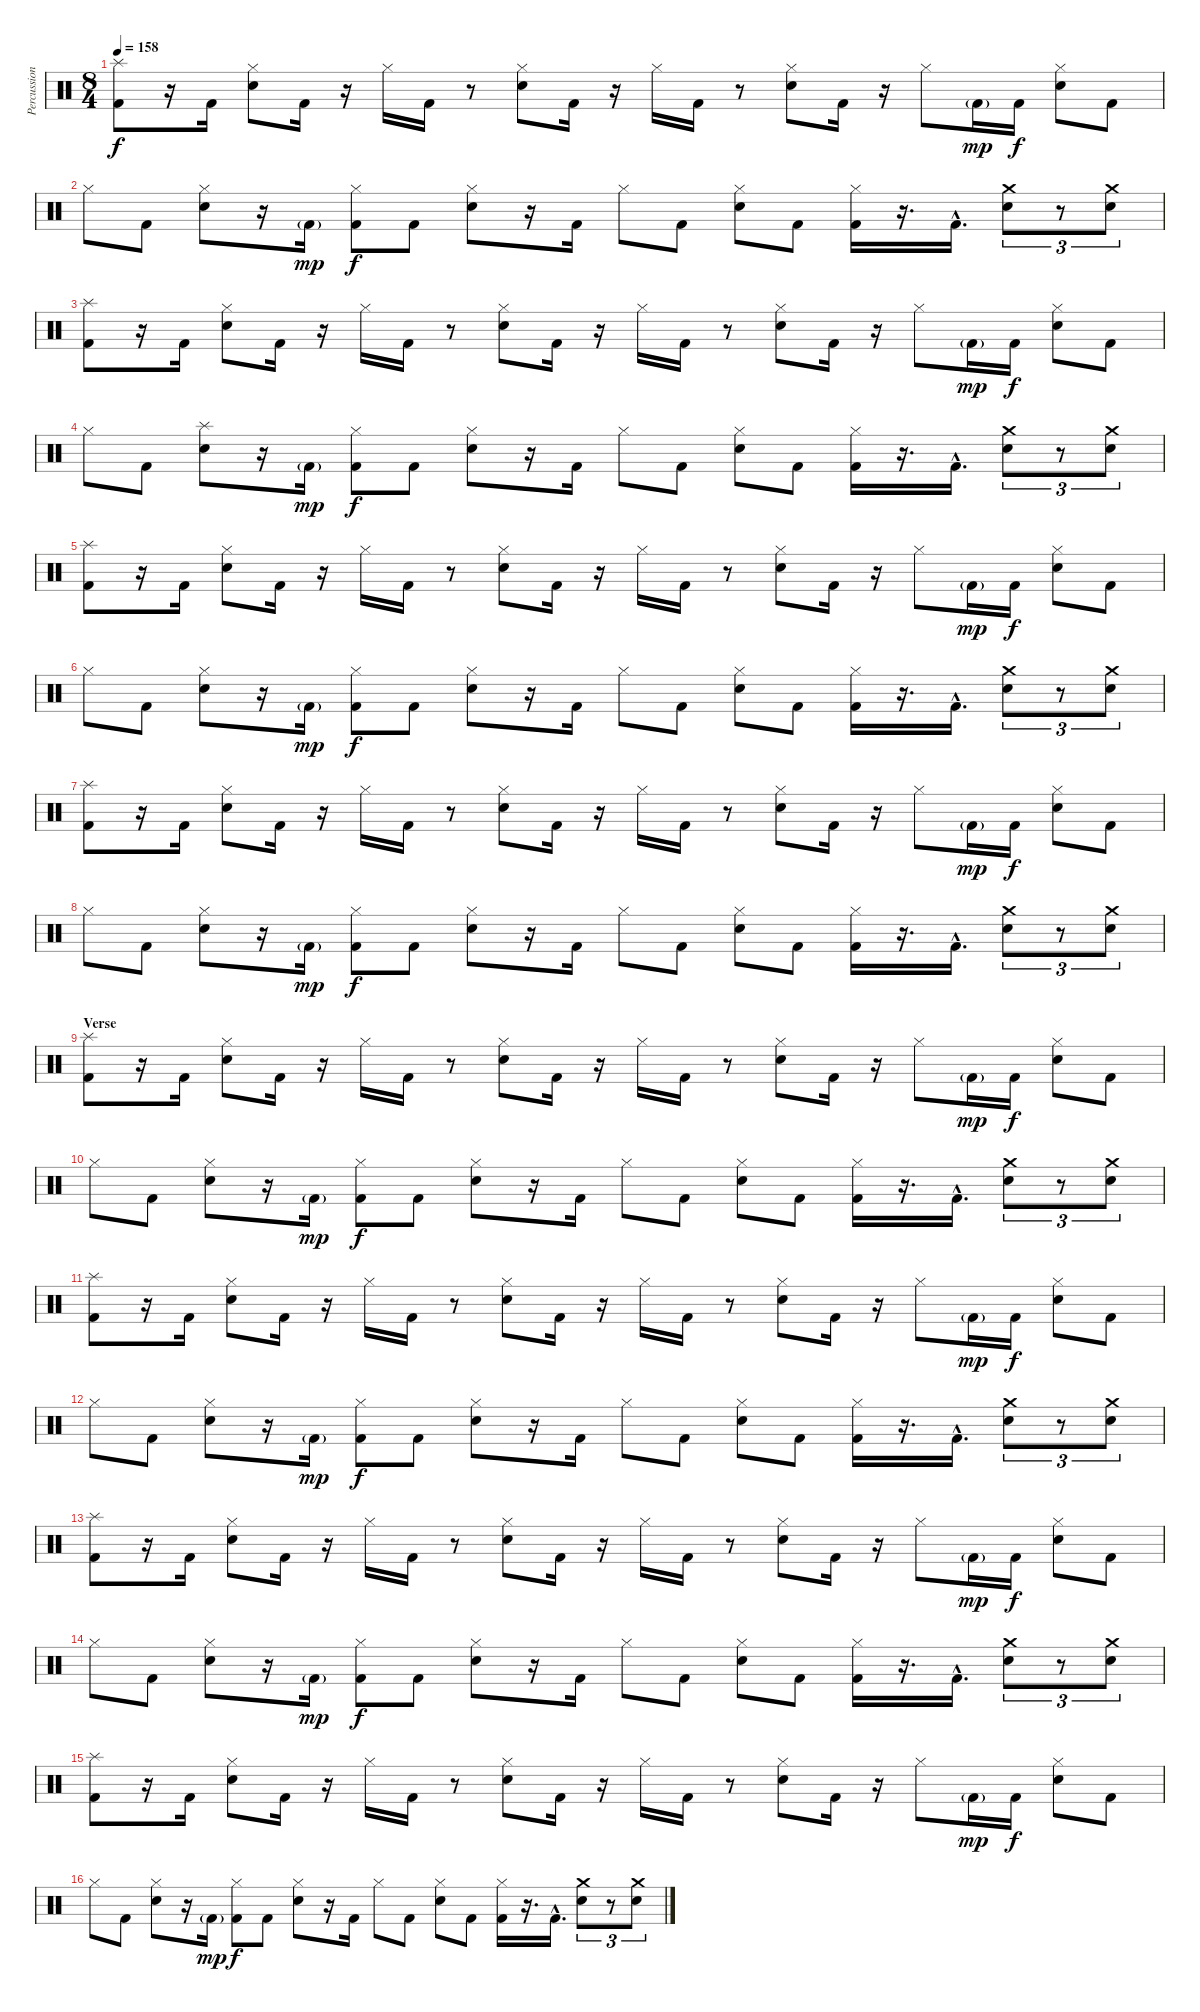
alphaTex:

\track ("Percussion" "Percussion") {instrument percussion}
\staff {score}
\articulation defaults
\ts (8 4)
\tempo 158
\clef neutral
\ks c
("Splash (hit)" "Kick (hit) 2").8{dy f} r.16 "Kick (hit) 2".16 ("Hi-Hat (closed)" "Electric Snare (hit)").8 "Kick (hit) 2".16 r.16 "Hi-Hat (closed)".16 "Kick (hit) 2".16 r.8 ("Hi-Hat (closed)" "Electric Snare (hit)").8 "Kick (hit) 2".16 r.16 "Hi-Hat (closed)".16 "Kick (hit) 2".16 r.8 ("Hi-Hat (closed)" "Electric Snare (hit)").8 "Kick (hit) 2".16 r.16 "Hi-Hat (closed)".8 "Kick (hit) 2"{g}.16{dy mp} "Kick (hit) 2".16{dy f} ("Hi-Hat (closed)" "Electric Snare (hit)").8 "Kick (hit) 2".8 |
"Hi-Hat (closed)".8 "Kick (hit) 2".8 ("Hi-Hat (closed)" "Electric Snare (hit)").8 r.16 "Kick (hit) 2"{g}.16{dy mp} ("Hi-Hat (closed)" "Kick (hit) 2").8{dy f} "Kick (hit) 2".8 ("Hi-Hat (closed)" "Electric Snare (hit)").8 r.16 "Kick (hit) 2".16 "Hi-Hat (closed)".8 "Kick (hit) 2".8 ("Hi-Hat (closed)" "Electric Snare (hit)").8 "Kick (hit) 2".8 ("Hi-Hat (closed)" "Kick (hit) 2").16 r.16{d} "Kick (hit) 2"{hac}.16{d} ("Crash medium (hit)" "Electric Snare (hit)").8{tu (3 2)} r.8{tu (3 2)} ("Crash medium (hit)" "Electric Snare (hit)").8{tu (3 2)} |
("Splash (hit)" "Kick (hit) 2").8 r.16 "Kick (hit) 2".16 ("Hi-Hat (closed)" "Electric Snare (hit)").8 "Kick (hit) 2".16 r.16 "Hi-Hat (closed)".16 "Kick (hit) 2".16 r.8 ("Hi-Hat (closed)" "Electric Snare (hit)").8 "Kick (hit) 2".16 r.16 "Hi-Hat (closed)".16 "Kick (hit) 2".16 r.8 ("Hi-Hat (closed)" "Electric Snare (hit)").8 "Kick (hit) 2".16 r.16 "Hi-Hat (closed)".8 "Kick (hit) 2"{g}.16{dy mp} "Kick (hit) 2".16{dy f} ("Hi-Hat (closed)" "Electric Snare (hit)").8 "Kick (hit) 2".8 |
"Hi-Hat (closed)".8 "Kick (hit) 2".8 ("Splash (hit)" "Electric Snare (hit)").8 r.16 "Kick (hit) 2"{g}.16{dy mp} ("Hi-Hat (closed)" "Kick (hit) 2").8{dy f} "Kick (hit) 2".8 ("Hi-Hat (closed)" "Electric Snare (hit)").8 r.16 "Kick (hit) 2".16 "Hi-Hat (closed)".8 "Kick (hit) 2".8 ("Hi-Hat (closed)" "Electric Snare (hit)").8 "Kick (hit) 2".8 ("Hi-Hat (closed)" "Kick (hit) 2").16 r.16{d} "Kick (hit) 2"{hac}.16{d} ("Crash medium (hit)" "Electric Snare (hit)").8{tu (3 2)} r.8{tu (3 2)} ("Crash medium (hit)" "Electric Snare (hit)").8{tu (3 2)} |
("Splash (hit)" "Kick (hit) 2").8 r.16 "Kick (hit) 2".16 ("Hi-Hat (closed)" "Electric Snare (hit)").8 "Kick (hit) 2".16 r.16 "Hi-Hat (closed)".16 "Kick (hit) 2".16 r.8 ("Hi-Hat (closed)" "Electric Snare (hit)").8 "Kick (hit) 2".16 r.16 "Hi-Hat (closed)".16 "Kick (hit) 2".16 r.8 ("Hi-Hat (closed)" "Electric Snare (hit)").8 "Kick (hit) 2".16 r.16 "Hi-Hat (closed)".8 "Kick (hit) 2"{g}.16{dy mp} "Kick (hit) 2".16{dy f} ("Hi-Hat (closed)" "Electric Snare (hit)").8 "Kick (hit) 2".8 |
"Hi-Hat (closed)".8 "Kick (hit) 2".8 ("Hi-Hat (closed)" "Electric Snare (hit)").8 r.16 "Kick (hit) 2"{g}.16{dy mp} ("Hi-Hat (closed)" "Kick (hit) 2").8{dy f} "Kick (hit) 2".8 ("Hi-Hat (closed)" "Electric Snare (hit)").8 r.16 "Kick (hit) 2".16 "Hi-Hat (closed)".8 "Kick (hit) 2".8 ("Hi-Hat (closed)" "Electric Snare (hit)").8 "Kick (hit) 2".8 ("Hi-Hat (closed)" "Kick (hit) 2").16 r.16{d} "Kick (hit) 2"{hac}.16{d} ("Crash medium (hit)" "Electric Snare (hit)").8{tu (3 2)} r.8{tu (3 2)} ("Crash medium (hit)" "Electric Snare (hit)").8{tu (3 2)} |
("Splash (hit)" "Kick (hit) 2").8 r.16 "Kick (hit) 2".16 ("Hi-Hat (closed)" "Electric Snare (hit)").8 "Kick (hit) 2".16 r.16 "Hi-Hat (closed)".16 "Kick (hit) 2".16 r.8 ("Hi-Hat (closed)" "Electric Snare (hit)").8 "Kick (hit) 2".16 r.16 "Hi-Hat (closed)".16 "Kick (hit) 2".16 r.8 ("Hi-Hat (closed)" "Electric Snare (hit)").8 "Kick (hit) 2".16 r.16 "Hi-Hat (closed)".8 "Kick (hit) 2"{g}.16{dy mp} "Kick (hit) 2".16{dy f} ("Hi-Hat (closed)" "Electric Snare (hit)").8 "Kick (hit) 2".8 |
"Hi-Hat (closed)".8 "Kick (hit) 2".8 ("Hi-Hat (closed)" "Electric Snare (hit)").8 r.16 "Kick (hit) 2"{g}.16{dy mp} ("Hi-Hat (closed)" "Kick (hit) 2").8{dy f} "Kick (hit) 2".8 ("Hi-Hat (closed)" "Electric Snare (hit)").8 r.16 "Kick (hit) 2".16 "Hi-Hat (closed)".8 "Kick (hit) 2".8 ("Hi-Hat (closed)" "Electric Snare (hit)").8 "Kick (hit) 2".8 ("Hi-Hat (closed)" "Kick (hit) 2").16 r.16{d} "Kick (hit) 2"{hac}.16{d} ("Crash medium (hit)" "Electric Snare (hit)").8{tu (3 2)} r.8{tu (3 2)} ("Crash medium (hit)" "Electric Snare (hit)").8{tu (3 2)} |
\section ("" "Verse")
("Splash (hit)" "Kick (hit) 2").8 r.16 "Kick (hit) 2".16 ("Hi-Hat (closed)" "Electric Snare (hit)").8 "Kick (hit) 2".16 r.16 "Hi-Hat (closed)".16 "Kick (hit) 2".16 r.8 ("Hi-Hat (closed)" "Electric Snare (hit)").8 "Kick (hit) 2".16 r.16 "Hi-Hat (closed)".16 "Kick (hit) 2".16 r.8 ("Hi-Hat (closed)" "Electric Snare (hit)").8 "Kick (hit) 2".16 r.16 "Hi-Hat (closed)".8 "Kick (hit) 2"{g}.16{dy mp} "Kick (hit) 2".16{dy f} ("Hi-Hat (closed)" "Electric Snare (hit)").8 "Kick (hit) 2".8 |
"Hi-Hat (closed)".8 "Kick (hit) 2".8 ("Hi-Hat (closed)" "Electric Snare (hit)").8 r.16 "Kick (hit) 2"{g}.16{dy mp} ("Hi-Hat (closed)" "Kick (hit) 2").8{dy f} "Kick (hit) 2".8 ("Hi-Hat (closed)" "Electric Snare (hit)").8 r.16 "Kick (hit) 2".16 "Hi-Hat (closed)".8 "Kick (hit) 2".8 ("Hi-Hat (closed)" "Electric Snare (hit)").8 "Kick (hit) 2".8 ("Hi-Hat (closed)" "Kick (hit) 2").16 r.16{d} "Kick (hit) 2"{hac}.16{d} ("Crash medium (hit)" "Electric Snare (hit)").8{tu (3 2)} r.8{tu (3 2)} ("Crash medium (hit)" "Electric Snare (hit)").8{tu (3 2)} |
("Splash (hit)" "Kick (hit) 2").8 r.16 "Kick (hit) 2".16 ("Hi-Hat (closed)" "Electric Snare (hit)").8 "Kick (hit) 2".16 r.16 "Hi-Hat (closed)".16 "Kick (hit) 2".16 r.8 ("Hi-Hat (closed)" "Electric Snare (hit)").8 "Kick (hit) 2".16 r.16 "Hi-Hat (closed)".16 "Kick (hit) 2".16 r.8 ("Hi-Hat (closed)" "Electric Snare (hit)").8 "Kick (hit) 2".16 r.16 "Hi-Hat (closed)".8 "Kick (hit) 2"{g}.16{dy mp} "Kick (hit) 2".16{dy f} ("Hi-Hat (closed)" "Electric Snare (hit)").8 "Kick (hit) 2".8 |
"Hi-Hat (closed)".8 "Kick (hit) 2".8 ("Hi-Hat (closed)" "Electric Snare (hit)").8 r.16 "Kick (hit) 2"{g}.16{dy mp} ("Hi-Hat (closed)" "Kick (hit) 2").8{dy f} "Kick (hit) 2".8 ("Hi-Hat (closed)" "Electric Snare (hit)").8 r.16 "Kick (hit) 2".16 "Hi-Hat (closed)".8 "Kick (hit) 2".8 ("Hi-Hat (closed)" "Electric Snare (hit)").8 "Kick (hit) 2".8 ("Hi-Hat (closed)" "Kick (hit) 2").16 r.16{d} "Kick (hit) 2"{hac}.16{d} ("Crash medium (hit)" "Electric Snare (hit)").8{tu (3 2)} r.8{tu (3 2)} ("Crash medium (hit)" "Electric Snare (hit)").8{tu (3 2)} |
("Splash (hit)" "Kick (hit) 2").8 r.16 "Kick (hit) 2".16 ("Hi-Hat (closed)" "Electric Snare (hit)").8 "Kick (hit) 2".16 r.16 "Hi-Hat (closed)".16 "Kick (hit) 2".16 r.8 ("Hi-Hat (closed)" "Electric Snare (hit)").8 "Kick (hit) 2".16 r.16 "Hi-Hat (closed)".16 "Kick (hit) 2".16 r.8 ("Hi-Hat (closed)" "Electric Snare (hit)").8 "Kick (hit) 2".16 r.16 "Hi-Hat (closed)".8 "Kick (hit) 2"{g}.16{dy mp} "Kick (hit) 2".16{dy f} ("Hi-Hat (closed)" "Electric Snare (hit)").8 "Kick (hit) 2".8 |
"Hi-Hat (closed)".8 "Kick (hit) 2".8 ("Hi-Hat (closed)" "Electric Snare (hit)").8 r.16 "Kick (hit) 2"{g}.16{dy mp} ("Hi-Hat (closed)" "Kick (hit) 2").8{dy f} "Kick (hit) 2".8 ("Hi-Hat (closed)" "Electric Snare (hit)").8 r.16 "Kick (hit) 2".16 "Hi-Hat (closed)".8 "Kick (hit) 2".8 ("Hi-Hat (closed)" "Electric Snare (hit)").8 "Kick (hit) 2".8 ("Hi-Hat (closed)" "Kick (hit) 2").16 r.16{d} "Kick (hit) 2"{hac}.16{d} ("Crash medium (hit)" "Electric Snare (hit)").8{tu (3 2)} r.8{tu (3 2)} ("Crash medium (hit)" "Electric Snare (hit)").8{tu (3 2)} |
("Splash (hit)" "Kick (hit) 2").8 r.16 "Kick (hit) 2".16 ("Hi-Hat (closed)" "Electric Snare (hit)").8 "Kick (hit) 2".16 r.16 "Hi-Hat (closed)".16 "Kick (hit) 2".16 r.8 ("Hi-Hat (closed)" "Electric Snare (hit)").8 "Kick (hit) 2".16 r.16 "Hi-Hat (closed)".16 "Kick (hit) 2".16 r.8 ("Hi-Hat (closed)" "Electric Snare (hit)").8 "Kick (hit) 2".16 r.16 "Hi-Hat (closed)".8 "Kick (hit) 2"{g}.16{dy mp} "Kick (hit) 2".16{dy f} ("Hi-Hat (closed)" "Electric Snare (hit)").8 "Kick (hit) 2".8 |
"Hi-Hat (closed)".8 "Kick (hit) 2".8 ("Hi-Hat (closed)" "Electric Snare (hit)").8 r.16 "Kick (hit) 2"{g}.16{dy mp} ("Hi-Hat (closed)" "Kick (hit) 2").8{dy f} "Kick (hit) 2".8 ("Hi-Hat (closed)" "Electric Snare (hit)").8 r.16 "Kick (hit) 2".16 "Hi-Hat (closed)".8 "Kick (hit) 2".8 ("Hi-Hat (closed)" "Electric Snare (hit)").8 "Kick (hit) 2".8 ("Hi-Hat (closed)" "Kick (hit) 2").16 r.16{d} "Kick (hit) 2"{hac}.16{d} ("Crash medium (hit)" "Electric Snare (hit)").8{tu (3 2)} r.8{tu (3 2)} ("Crash medium (hit)" "Electric Snare (hit)").8{tu (3 2)}
